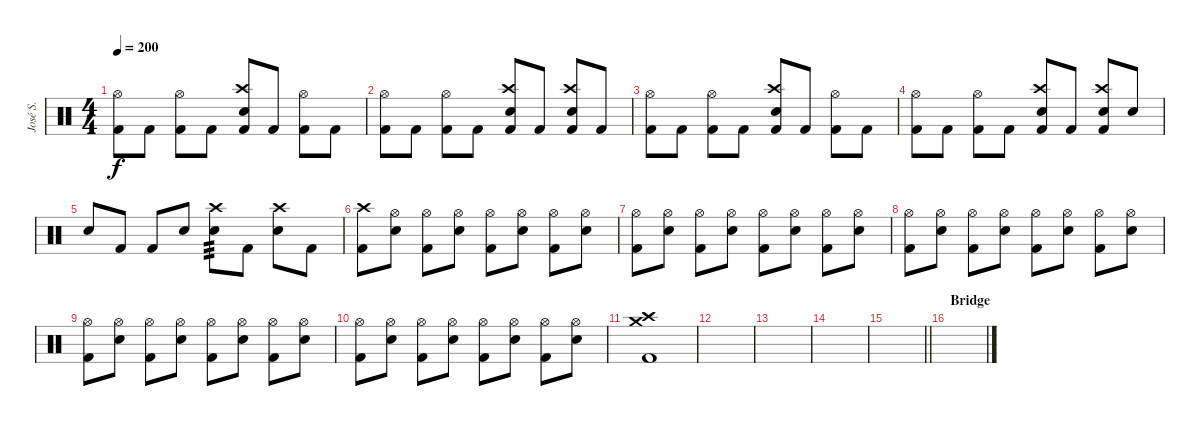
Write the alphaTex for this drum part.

\track ("José S." "José S.") {instrument percussion}
\staff {score}
\articulation defaults
\ts (4 4)
\tempo 200
\clef neutral
\ks c
("Hi-Hat (open)" "Kick (hit) 2").8{dy f} "Kick (hit) 2".8 ("Hi-Hat (open)" "Kick (hit) 2").8 "Kick (hit) 2".8 ("Crash high (hit)" "Electric Snare (hit)" "Kick (hit) 2").8 "Kick (hit) 2".8 ("Hi-Hat (open)" "Kick (hit) 2").8 "Kick (hit) 2".8 |
("Hi-Hat (open)" "Kick (hit) 2").8 "Kick (hit) 2".8 ("Hi-Hat (open)" "Kick (hit) 2").8 "Kick (hit) 2".8 ("Crash high (hit)" "Electric Snare (hit)" "Kick (hit) 2").8 "Kick (hit) 2".8 ("Crash high (hit)" "Electric Snare (hit)" "Kick (hit) 2").8 "Kick (hit) 2".8 |
("Hi-Hat (open)" "Kick (hit) 2").8 "Kick (hit) 2".8 ("Hi-Hat (open)" "Kick (hit) 2").8 "Kick (hit) 2".8 ("Crash high (hit)" "Electric Snare (hit)" "Kick (hit) 2").8 "Kick (hit) 2".8 ("Hi-Hat (open)" "Kick (hit) 2").8 "Kick (hit) 2".8 |
("Hi-Hat (open)" "Kick (hit) 2").8 "Kick (hit) 2".8 ("Hi-Hat (open)" "Kick (hit) 2").8 "Kick (hit) 2".8 ("Crash high (hit)" "Electric Snare (hit)" "Kick (hit) 2").8 "Kick (hit) 2".8 ("Crash high (hit)" "Electric Snare (hit)" "Kick (hit) 2").8 "Electric Snare (hit)".8 |
"Electric Snare (hit)".8 "Kick (hit) 2".8 "Kick (hit) 2".8 "Electric Snare (hit)".8 ("Crash high (hit)" "Electric Snare (hit)").8{tp 3} "Kick (hit) 2".8 ("Crash high (hit)" "Electric Snare (hit)").8 "Kick (hit) 2".8 |
("Crash high (hit)" "Kick (hit) 2").8 ("Hi-Hat (open)" "Electric Snare (hit)").8 ("Hi-Hat (open)" "Kick (hit) 2").8 ("Hi-Hat (open)" "Electric Snare (hit)").8 ("Hi-Hat (open)" "Kick (hit) 2").8 ("Hi-Hat (open)" "Electric Snare (hit)").8 ("Hi-Hat (open)" "Kick (hit) 2").8 ("Hi-Hat (open)" "Electric Snare (hit)").8 |
("Hi-Hat (open)" "Kick (hit) 2").8 ("Hi-Hat (open)" "Electric Snare (hit)").8 ("Hi-Hat (open)" "Kick (hit) 2").8 ("Hi-Hat (open)" "Electric Snare (hit)").8 ("Hi-Hat (open)" "Kick (hit) 2").8 ("Hi-Hat (open)" "Electric Snare (hit)").8 ("Hi-Hat (open)" "Kick (hit) 2").8 ("Hi-Hat (open)" "Electric Snare (hit)").8 |
("Hi-Hat (open)" "Kick (hit) 2").8 ("Hi-Hat (open)" "Electric Snare (hit)").8 ("Hi-Hat (open)" "Kick (hit) 2").8 ("Hi-Hat (open)" "Electric Snare (hit)").8 ("Hi-Hat (open)" "Kick (hit) 2").8 ("Hi-Hat (open)" "Electric Snare (hit)").8 ("Hi-Hat (open)" "Kick (hit) 2").8 ("Hi-Hat (open)" "Electric Snare (hit)").8 |
("Hi-Hat (open)" "Kick (hit) 2").8 ("Hi-Hat (open)" "Electric Snare (hit)").8 ("Hi-Hat (open)" "Kick (hit) 2").8 ("Hi-Hat (open)" "Electric Snare (hit)").8 ("Hi-Hat (open)" "Kick (hit) 2").8 ("Hi-Hat (open)" "Electric Snare (hit)").8 ("Hi-Hat (open)" "Kick (hit) 2").8 ("Hi-Hat (open)" "Electric Snare (hit)").8 |
("Hi-Hat (open)" "Kick (hit) 2").8 ("Hi-Hat (open)" "Electric Snare (hit)").8 ("Hi-Hat (open)" "Kick (hit) 2").8 ("Hi-Hat (open)" "Electric Snare (hit)").8 ("Hi-Hat (open)" "Kick (hit) 2").8 ("Hi-Hat (open)" "Electric Snare (hit)").8 ("Hi-Hat (open)" "Kick (hit) 2").8 ("Hi-Hat (open)" "Electric Snare (hit)").8 |
("Crash high (hit)" "Crash medium (hit)" "Kick (hit) 2").1 |
|
|
|
\barLineRight lightlight
|
\section ("" "Bridge")
